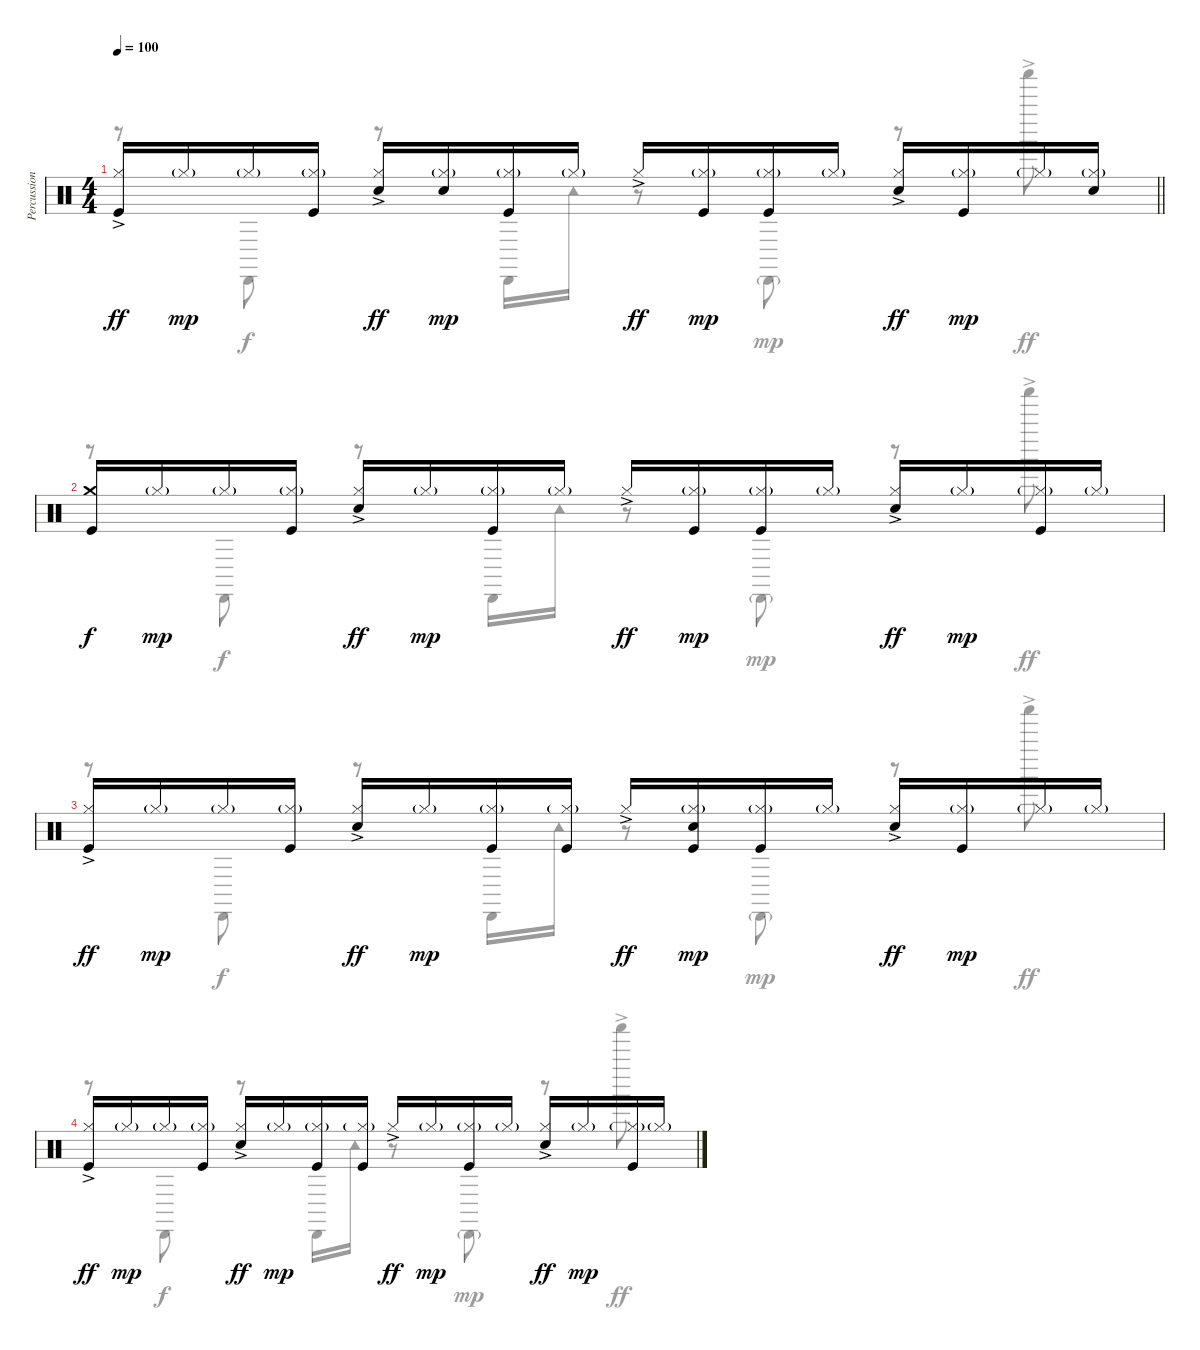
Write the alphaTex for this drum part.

\track ("Percussions" "Percussion") {instrument percussion}
\staff {score}
\articulation defaults
\voice
\ts (4 4)
\tempo 100
\clef neutral
\barLineRight lightlight
\ks c
("Kick (hit)" "Hi-Hat (closed)"{ac}).16{dy ff} "Hi-Hat (closed)"{g}.16{dy mp} "Hi-Hat (closed)"{g}.16 ("Kick (hit)" "Hi-Hat (closed)"{g}).16 ("Electric Snare (hit)" "Hi-Hat (closed)"{ac}).16{dy ff} ("Electric Snare (hit)" "Hi-Hat (closed)"{g}).16{dy mp} ("Kick (hit)" "Hi-Hat (closed)"{g}).16 "Hi-Hat (closed)"{g}.16 "Hi-Hat (closed)"{ac}.16{dy ff} ("Kick (hit)" "Hi-Hat (closed)"{g}).16{dy mp} ("Kick (hit)" "Hi-Hat (closed)"{g}).16 "Hi-Hat (closed)"{g}.16 ("Snare (hit) 2" "Hi-Hat (closed)"{ac}).16{dy ff} ("Kick (hit)" "Hi-Hat (closed)"{g}).16{dy mp} "Hi-Hat (closed)"{g}.16 ("Snare (hit) 2" "Hi-Hat (closed)"{g}).16 |
("Kick (hit)" "Crash medium (hit)").16{dy f} "Hi-Hat (closed)"{g}.16{dy mp} "Hi-Hat (closed)"{g}.16 ("Kick (hit)" "Hi-Hat (closed)"{g}).16 ("Electric Snare (hit)" "Hi-Hat (closed)"{ac}).16{dy ff} "Hi-Hat (closed)"{g}.16{dy mp} ("Kick (hit)" "Hi-Hat (closed)"{g}).16 "Hi-Hat (closed)"{g}.16 "Hi-Hat (closed)"{ac}.16{dy ff} ("Kick (hit)" "Hi-Hat (closed)"{g}).16{dy mp} ("Kick (hit)" "Hi-Hat (closed)"{g}).16 "Hi-Hat (closed)"{g}.16 ("Snare (hit) 2" "Hi-Hat (closed)"{ac}).16{dy ff} "Hi-Hat (closed)"{g}.16{dy mp} ("Kick (hit)" "Hi-Hat (closed)"{g}).16 "Hi-Hat (closed)"{g}.16 |
("Kick (hit)" "Hi-Hat (closed)"{ac}).16{dy ff} "Hi-Hat (closed)"{g}.16{dy mp} "Hi-Hat (closed)"{g}.16 ("Kick (hit)" "Hi-Hat (closed)"{g}).16 ("Electric Snare (hit)" "Hi-Hat (closed)"{ac}).16{dy ff} "Hi-Hat (closed)"{g}.16{dy mp} ("Kick (hit)" "Hi-Hat (closed)"{g}).16 ("Kick (hit)" "Hi-Hat (closed)"{g}).16 "Hi-Hat (closed)"{ac}.16{dy ff} ("Kick (hit)" "Electric Snare (hit)" "Hi-Hat (closed)"{g}).16{dy mp} ("Kick (hit)" "Hi-Hat (closed)"{g}).16 "Hi-Hat (closed)"{g}.16 ("Snare (hit) 2" "Hi-Hat (closed)"{ac}).16{dy ff} ("Kick (hit)" "Hi-Hat (closed)"{g}).16{dy mp} "Hi-Hat (closed)"{g}.16 "Hi-Hat (closed)"{g}.16 |
("Kick (hit)" "Hi-Hat (closed)"{ac}).16{dy ff} "Hi-Hat (closed)"{g}.16{dy mp} "Hi-Hat (closed)"{g}.16 ("Kick (hit)" "Hi-Hat (closed)"{g}).16 ("Electric Snare (hit)" "Hi-Hat (closed)"{ac}).16{dy ff} "Hi-Hat (closed)"{g}.16{dy mp} ("Kick (hit)" "Hi-Hat (closed)"{g}).16 ("Kick (hit)" "Hi-Hat (closed)"{g}).16 "Hi-Hat (closed)"{ac}.16{dy ff} "Hi-Hat (closed)"{g}.16{dy mp} ("Kick (hit)" "Hi-Hat (closed)"{g}).16 "Hi-Hat (closed)"{g}.16 ("Snare (hit) 2" "Hi-Hat (closed)"{ac}).16{dy ff} "Hi-Hat (closed)"{g}.16{dy mp} ("Kick (hit)" "Hi-Hat (closed)"{g}).16 "Hi-Hat (closed)"{g}.16
\voice
\clef neutral
\ottava regular
\simile none
\barLineRight lightlight
\ks c
r.8{dy ff} "Cabasa (hit)".8{dy f} r.8 "Cabasa (hit)".16 "Tambourine (hit)".16 r.8 "Cabasa (hit)"{g}.8{dy mp} r.8 "Shaker (hit)"{ac}.8{dy ff} |
r.8 "Cabasa (hit)".8{dy f} r.8 "Cabasa (hit)".16 "Tambourine (hit)".16 r.8 "Cabasa (hit)"{g}.8{dy mp} r.8 "Shaker (hit)"{ac}.8{dy ff} |
r.8 "Cabasa (hit)".8{dy f} r.8 "Cabasa (hit)".16 "Tambourine (hit)".16 r.8 "Cabasa (hit)"{g}.8{dy mp} r.8 "Shaker (hit)"{ac}.8{dy ff} |
r.8 "Cabasa (hit)".8{dy f} r.8 "Cabasa (hit)".16 "Tambourine (hit)".16 r.8 "Cabasa (hit)"{g}.8{dy mp} r.8 "Shaker (hit)"{ac}.8{dy ff}
